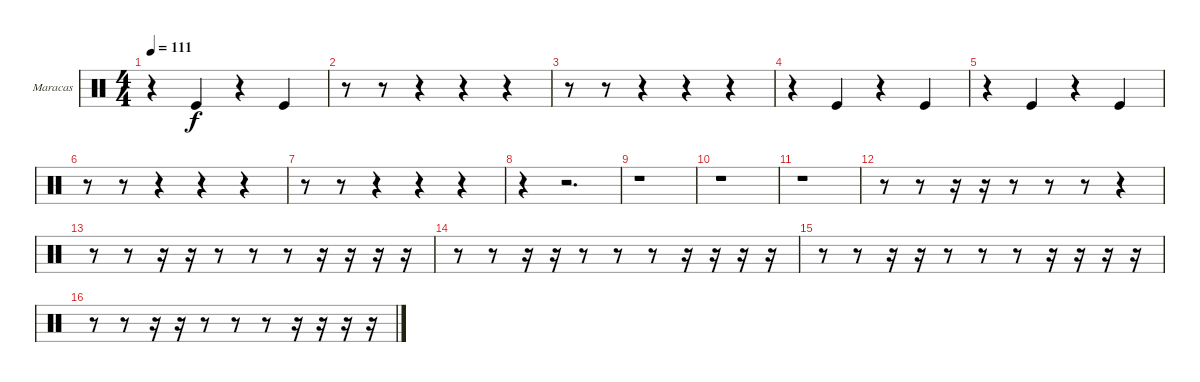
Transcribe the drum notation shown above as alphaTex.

\bracketExtendMode groupsimilarinstruments
\firstSystemTrackNameOrientation horizontal
\otherSystemsTrackNameOrientation horizontal
\track ("Maracas" "Maracas") {instrument percussion}
\staff {score}
\articulation defaults
\ts (4 4)
\tempo 111
\clef neutral
\ks c
r.4{dy f} "Kick (hit)".4 r.4 "Kick (hit)".4 |
r.8 r.8 r.4 r.4 r.4 |
r.8 r.8 r.4 r.4 r.4 |
r.4 "Kick (hit)".4 r.4 "Kick (hit)".4 |
r.4 "Kick (hit)".4 r.4 "Kick (hit)".4 |
r.8 r.8 r.4 r.4 r.4 |
r.8 r.8 r.4 r.4 r.4 |
r.4 r.2{d} |
r.1 |
r.1 |
r.1 |
r.8 r.8 r.16 r.16 r.8 r.8 r.8 r.4 |
r.8 r.8 r.16 r.16 r.8 r.8 r.8 r.16 r.16 r.16 r.16 |
r.8 r.8 r.16 r.16 r.8 r.8 r.8 r.16 r.16 r.16 r.16 |
r.8 r.8 r.16 r.16 r.8 r.8 r.8 r.16 r.16 r.16 r.16 |
r.8 r.8 r.16 r.16 r.8 r.8 r.8 r.16 r.16 r.16 r.16
